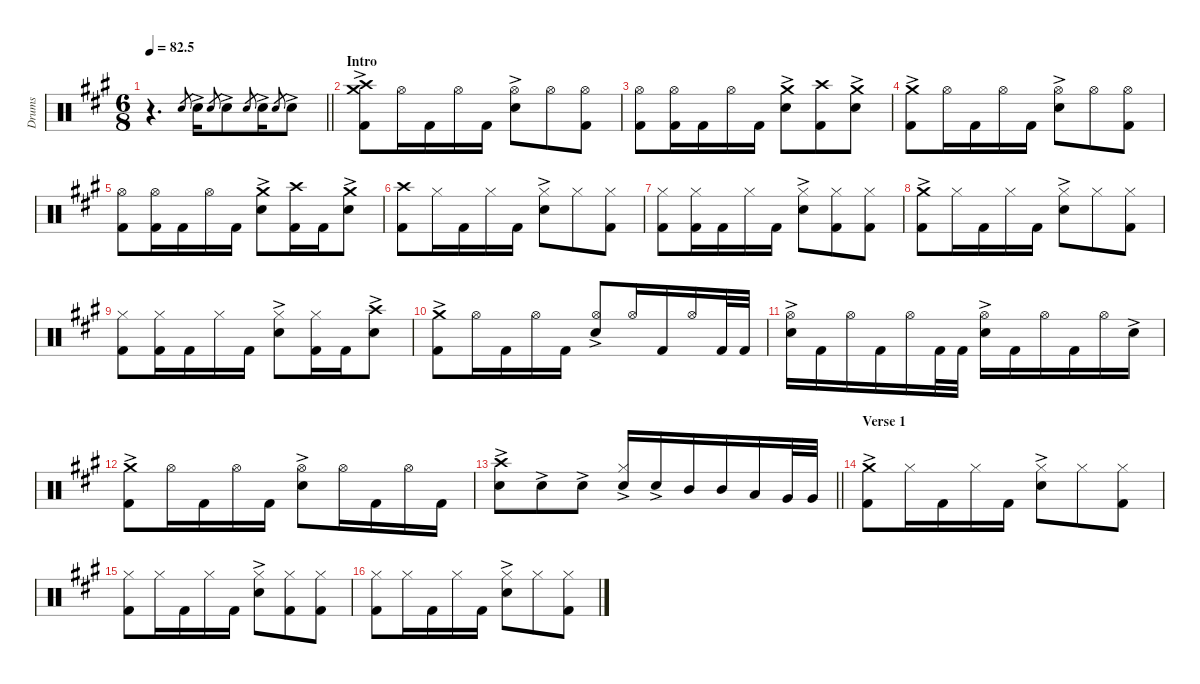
\defaultSystemsLayout 4
\hideDynamics
\bracketExtendMode nobrackets
\otherSystemsTrackNameOrientation horizontal
\track ("Drumkit-show" "Drums") {defaultSystemsLayout 4 mute instrument percussion}
\staff {score}
\articulation defaults
\ts (6 8)
\tempo
82.5
\accidentals auto
\clef neutral
\ottava regular
\simile none
\scale
0.474178
\barLineRight lightlight
\ks a
r.4{d dy mp beam Down} "Snare (hit) 2"{acc forcenatural}.8{gr beam Up} "Snare (hit) 2"{ac acc forcenatural}.16{dy f beam Down} "Snare (hit) 2"{acc forcenatural}.8{gr dy mp beam Up} "Snare (hit) 2"{ac acc forcenatural}.8{dy f beam Down} "Snare (hit) 2"{acc forcenatural}.8{gr dy mp beam Up} "Snare (hit) 2"{ac acc forcenatural}.16{dy f beam Down} "Snare (hit) 2"{acc forcenatural}.8{gr dy mp beam Up} "Snare (hit) 2"{ac acc forcenatural}.8{dy f beam Down} |
\section ("" "Intro")
\scale
0.262911 ("Crash medium (hit)"{ac acc forcenatural} "Crash high (hit)"{acc forcenatural} "Kick (hit) 2"{acc forcenatural}).8{beam Down} "Hi-Hat (open)"{acc forcenatural}.16{beam Down} "Kick (hit) 2"{acc forcenatural}.16{beam Down} "Hi-Hat (open)"{acc forcenatural}.16{beam Down} "Kick (hit) 2"{acc forcenatural}.16{beam Down} ("Hi-Hat (open)"{acc forcenatural} "Snare (hit) 2"{ac acc forcenatural}).8{beam Down} "Hi-Hat (open)"{acc forcenatural}.8{beam Down} ("Hi-Hat (open)"{acc forcenatural} "Kick (hit) 2"{acc forcenatural}).8{beam Down} |
\scale
0.262911 ("Hi-Hat (open)"{acc forcenatural} "Kick (hit) 2"{acc forcenatural}).8{beam Down} ("Hi-Hat (open)"{acc forcenatural} "Kick (hit) 2"{acc forcenatural}).16{beam Down} "Kick (hit) 2"{acc forcenatural}.16{beam Down} "Hi-Hat (open)"{acc forcenatural}.16{beam Down} "Kick (hit) 2"{acc forcenatural}.16{beam Down} ("Crash medium (hit)"{ac acc forcenatural} "Snare (hit) 2"{ac acc forcenatural}).8{beam Down} ("Crash high (hit)"{acc forcenatural} "Kick (hit) 2"{acc forcenatural}).8{beam Down} ("Crash medium (hit)"{ac acc forcenatural} "Snare (hit) 2"{ac acc forcenatural}).8{beam Down} |
\scale
0.333333 ("Crash medium (hit)"{ac acc forcenatural} "Kick (hit) 2"{acc forcenatural}).8{beam Down} "Hi-Hat (open)"{acc forcenatural}.16{beam Down} "Kick (hit) 2"{acc forcenatural}.16{beam Down} "Hi-Hat (open)"{acc forcenatural}.16{beam Down} "Kick (hit) 2"{acc forcenatural}.16{beam Down} ("Hi-Hat (open)"{acc forcenatural} "Snare (hit) 2"{ac acc forcenatural}).8{beam Down} "Hi-Hat (open)"{acc forcenatural}.8{beam Down} ("Hi-Hat (open)"{acc forcenatural} "Kick (hit) 2"{acc forcenatural}).8{beam Down} |
\scale
0.307582 ("Hi-Hat (open)"{acc forcenatural} "Kick (hit) 2"{acc forcenatural}).8{beam Down} ("Hi-Hat (open)"{acc forcenatural} "Kick (hit) 2"{acc forcenatural}).16{beam Down} "Kick (hit) 2"{acc forcenatural}.16{beam Down} "Hi-Hat (open)"{acc forcenatural}.16{beam Down} "Kick (hit) 2"{acc forcenatural}.16{beam Down} ("Crash medium (hit)"{ac acc forcenatural} "Snare (hit) 2"{ac acc forcenatural}).8{beam Down} ("Crash high (hit)"{acc forcenatural} "Kick (hit) 2"{acc forcenatural}).16{beam Down} "Kick (hit) 2"{acc forcenatural}.16{beam Down} ("Crash medium (hit)"{ac acc forcenatural} "Snare (hit) 2"{ac acc forcenatural}).8{beam Down} |
("Kick (hit) 2"{acc forcenatural} "Crash high (hit)"{acc forcenatural}).8{beam Down} "Hi-Hat (closed)"{acc forcenatural}.16{beam Down} "Kick (hit) 2"{acc forcenatural}.16{beam Down} "Hi-Hat (closed)"{acc forcenatural}.16{beam Down} "Kick (hit) 2"{acc forcenatural}.16{beam Down} ("Hi-Hat (closed)"{acc forcenatural} "Snare (hit) 2"{ac acc forcenatural}).8{beam Down} "Hi-Hat (closed)"{acc forcenatural}.8{beam Down} ("Hi-Hat (closed)"{acc forcenatural} "Kick (hit) 2"{acc forcenatural}).8{beam Down} |
("Hi-Hat (closed)"{acc forcenatural} "Kick (hit) 2"{acc forcenatural}).8{beam Down} ("Hi-Hat (closed)"{acc forcenatural} "Kick (hit) 2"{acc forcenatural}).16{beam Down} "Kick (hit) 2"{acc forcenatural}.16{beam Down} "Hi-Hat (closed)"{acc forcenatural}.16{beam Down} "Kick (hit) 2"{acc forcenatural}.16{beam Down} ("Hi-Hat (closed)"{acc forcenatural} "Snare (hit) 2"{ac acc forcenatural}).8{beam Down} ("Hi-Hat (closed)"{acc forcenatural} "Kick (hit) 2"{acc forcenatural}).8{beam Down} ("Hi-Hat (closed)"{acc forcenatural} "Kick (hit) 2"{acc forcenatural}).8{beam Down} |
("Crash medium (hit)"{ac acc forcenatural} "Kick (hit) 2"{acc forcenatural}).8{beam Down} "Hi-Hat (closed)"{acc forcenatural}.16{beam Down} "Kick (hit) 2"{acc forcenatural}.16{beam Down} "Hi-Hat (closed)"{acc forcenatural}.16{beam Down} "Kick (hit) 2"{acc forcenatural}.16{beam Down} ("Hi-Hat (closed)"{acc forcenatural} "Snare (hit) 2"{ac acc forcenatural}).8{beam Down} "Hi-Hat (closed)"{acc forcenatural}.8{beam Down} ("Hi-Hat (closed)"{acc forcenatural} "Kick (hit) 2"{acc forcenatural}).8{beam Down} |
("Hi-Hat (closed)"{acc forcenatural} "Kick (hit) 2"{acc forcenatural}).8{beam Down} ("Hi-Hat (closed)"{acc forcenatural} "Kick (hit) 2"{acc forcenatural}).16{beam Down} "Kick (hit) 2"{acc forcenatural}.16{beam Down} "Hi-Hat (closed)"{acc forcenatural}.16{beam Down} "Kick (hit) 2"{acc forcenatural}.16{beam Down} ("Hi-Hat (closed)"{acc forcenatural} "Snare (hit) 2"{ac acc forcenatural}).8{beam Down} ("Hi-Hat (closed)"{acc forcenatural} "Kick (hit) 2"{acc forcenatural}).16{beam Down} "Kick (hit) 2"{acc forcenatural}.16{beam Down} ("Snare (hit) 2"{ac acc forcenatural} "Crash high (hit)"{acc forcenatural}).8{beam Down} |
("Crash medium (hit)"{ac acc forcenatural} "Kick (hit) 2"{acc forcenatural}).8{beam Down} "Hi-Hat (open)"{acc forcenatural}.16{beam Down} "Kick (hit) 2"{acc forcenatural}.16{beam Down} "Hi-Hat (open)"{acc forcenatural}.16{beam Down} "Kick (hit) 2"{acc forcenatural}.16{beam Down} ("Hi-Hat (open)"{acc forcenatural} "Snare (hit) 2"{ac acc forcenatural}).8{beam Up} "Hi-Hat (open)"{acc forcenatural}.16{beam Up} "Kick (hit) 2"{acc forcenatural}.16{beam Up} "Hi-Hat (open)"{acc forcenatural}.16{beam Up} "Kick (hit) 2"{acc forcenatural}.32{beam Up} "Kick (hit) 2"{acc forcenatural}.32{beam Up} |
("Hi-Hat (open)"{acc forcenatural} "Snare (hit) 2"{ac acc forcenatural}).16{beam Down} "Kick (hit) 2"{acc forcenatural}.16{beam Down} "Hi-Hat (open)"{acc forcenatural}.16{beam Down} "Kick (hit) 2"{acc forcenatural}.16{beam Down} "Hi-Hat (open)"{acc forcenatural}.16{beam Down} "Kick (hit) 2"{acc forcenatural}.32{beam Down} "Kick (hit) 2"{acc forcenatural}.32{beam Down} ("Hi-Hat (open)"{acc forcenatural} "Snare (hit) 2"{ac acc forcenatural}).16{beam Down} "Kick (hit) 2"{acc forcenatural}.16{beam Down} "Hi-Hat (open)"{acc forcenatural}.16{beam Down} "Kick (hit) 2"{acc forcenatural}.16{beam Down} "Hi-Hat (open)"{acc forcenatural}.16{beam Down} "Snare (hit) 2"{ac acc forcenatural}.16{beam Down} |
("Crash medium (hit)"{ac acc forcenatural} "Kick (hit) 2"{acc forcenatural}).8{beam Down} "Hi-Hat (open)"{acc forcenatural}.16{beam Down} "Kick (hit) 2"{acc forcenatural}.16{beam Down} "Hi-Hat (open)"{acc forcenatural}.16{beam Down} "Kick (hit) 2"{acc forcenatural}.16{beam Down} ("Hi-Hat (open)"{acc forcenatural} "Snare (hit) 2"{ac acc forcenatural}).8{beam Down} "Hi-Hat (open)"{acc forcenatural}.16{beam Down} "Kick (hit) 2"{acc forcenatural}.16{beam Down} "Hi-Hat (open)"{acc forcenatural}.16{beam Down} "Kick (hit) 2"{acc forcenatural}.16{beam Down} |
\barLineRight lightlight
("Snare (hit) 2"{ac acc forcenatural} "Crash high (hit)"{acc forcenatural}).8{beam Down} "Snare (hit) 2"{ac acc forcenatural}.8{beam Down} "Snare (hit) 2"{ac acc forcenatural}.8{beam Down} ("Snare (hit) 2"{ac acc forcenatural} "Hi-Hat (closed)"{acc forcenatural}).16{beam Up} "Snare (hit) 2"{ac acc forcenatural}.16{beam Up} "Mid Tom (hit)"{acc forcenatural}.16{beam Up} "Mid Tom (hit)"{acc forcenatural}.16{beam Up} "Low Tom (hit)"{acc forcenatural}.16{beam Up} "Very Low Tom (hit)"{acc forcenatural}.32{beam Up} "Very Low Tom (hit)"{acc forcenatural}.32{beam Up} |
\section ("" "Verse 1")
("Crash medium (hit)"{ac acc forcenatural} "Kick (hit) 2"{acc forcenatural}).8{beam Down} "Hi-Hat (closed)"{acc forcenatural}.16{beam Down} "Kick (hit) 2"{acc forcenatural}.16{beam Down} "Hi-Hat (closed)"{acc forcenatural}.16{beam Down} "Kick (hit) 2"{acc forcenatural}.16{beam Down} ("Hi-Hat (closed)"{acc forcenatural} "Snare (hit) 2"{ac acc forcenatural}).8{beam Down} "Hi-Hat (closed)"{acc forcenatural}.8{beam Down} ("Hi-Hat (closed)"{acc forcenatural} "Kick (hit) 2"{acc forcenatural}).8{beam Down} |
("Hi-Hat (closed)"{acc forcenatural} "Kick (hit) 2"{acc forcenatural}).8{beam Down} "Hi-Hat (closed)"{acc forcenatural}.16{beam Down} "Kick (hit) 2"{acc forcenatural}.16{beam Down} "Hi-Hat (closed)"{acc forcenatural}.16{beam Down} "Kick (hit) 2"{acc forcenatural}.16{beam Down} ("Hi-Hat (closed)"{acc forcenatural} "Snare (hit) 2"{ac acc forcenatural}).8{beam Down} ("Hi-Hat (closed)"{acc forcenatural} "Kick (hit) 2"{acc forcenatural}).8{beam Down} ("Hi-Hat (closed)"{acc forcenatural} "Kick (hit) 2"{acc forcenatural}).8{beam Down} |
("Kick (hit) 2"{acc forcenatural} "Hi-Hat (closed)"{acc forcenatural}).8{beam Down} "Hi-Hat (closed)"{acc forcenatural}.16{beam Down} "Kick (hit) 2"{acc forcenatural}.16{beam Down} "Hi-Hat (closed)"{acc forcenatural}.16{beam Down} "Kick (hit) 2"{acc forcenatural}.16{beam Down} ("Hi-Hat (closed)"{acc forcenatural} "Snare (hit) 2"{ac acc forcenatural}).8{beam Down} "Hi-Hat (closed)"{acc forcenatural}.8{beam Down} ("Hi-Hat (closed)"{acc forcenatural} "Kick (hit) 2"{acc forcenatural}).8{beam Down}
